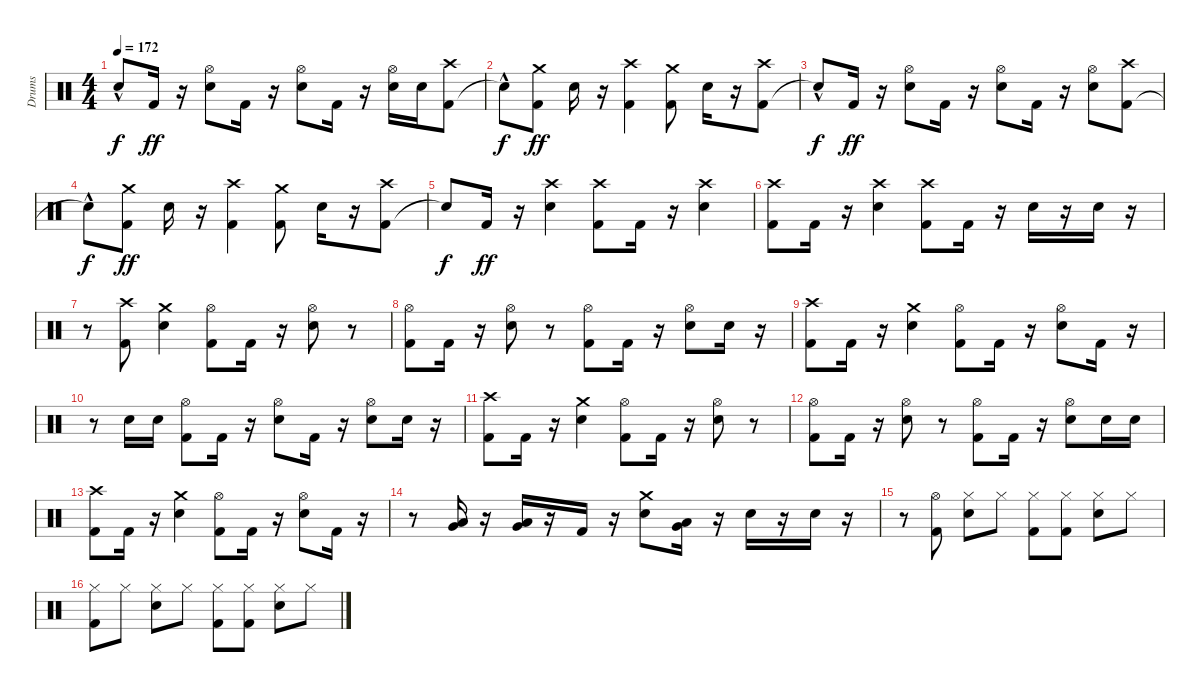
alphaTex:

\track ("Drums" "Drums") {instrument percussion}
\staff {score}
\articulation defaults
\ts (4 4)
\tempo 172
\clef neutral
\ks c "Snare (hit)"{hac t}.8{dy f} "Kick (hit) 2".16{dy ff}
r.16 ("Electric Snare (hit)" "Hi-Hat (open)").8 "Kick (hit) 2".16 r.16 ("Electric Snare (hit)" "Hi-Hat (open)").8 "Kick (hit) 2".16 r.16 ("Electric Snare (hit)" "Hi-Hat (open)").16 "Electric Snare (hit)".16 ("Kick (hit) 2" "Crash high (hit)").8 |
"Snare (hit)"{hac t}.8{dy f} ("Kick (hit) 2" "Crash medium (hit)").8{dy ff} "Electric Snare (hit)".16 r.16 ("Kick (hit) 2" "Crash high (hit)").4 ("Kick (hit) 2" "Crash medium (hit)").8 "Electric Snare (hit)".16 r.16 ("Kick (hit) 2" "Crash high (hit)").8 |
"Snare (hit)"{hac t}.8{dy f} "Kick (hit) 2".16{dy ff} r.16 ("Electric Snare (hit)" "Hi-Hat (open)").8 "Kick (hit) 2".16 r.16 ("Electric Snare (hit)" "Hi-Hat (open)").8 "Kick (hit) 2".16 r.16 ("Electric Snare (hit)" "Hi-Hat (open)").8 ("Kick (hit) 2" "Crash high (hit)").8 |
"Snare (hit)"{hac t}.8{dy f} ("Kick (hit) 2" "Crash medium (hit)").8{dy ff} "Electric Snare (hit)".16 r.16 ("Kick (hit) 2" "Crash high (hit)").4 ("Kick (hit) 2" "Crash medium (hit)").8 "Electric Snare (hit)".16 r.16 ("Kick (hit) 2" "Crash high (hit)").8 |
"Snare (hit)"{t}.8{dy f} "Kick (hit) 2".16{dy ff} r.16 ("Electric Snare (hit)" "Crash high (hit)").4 ("Kick (hit) 2" "Crash high (hit)").8 "Kick (hit) 2".16 r.16 ("Electric Snare (hit)" "Crash high (hit)").4 |
("Kick (hit) 2" "Crash high (hit)").8 "Kick (hit) 2".16 r.16 ("Electric Snare (hit)" "Crash high (hit)").4 ("Kick (hit) 2" "Crash high (hit)").8 "Kick (hit) 2".16 r.16 "Electric Snare (hit)".16 r.16 "Electric Snare (hit)".16 r.16 |
r.8 ("Kick (hit) 2" "Crash high (hit)").8 ("Electric Snare (hit)" "Crash medium (hit)").4 ("Kick (hit) 2" "Hi-Hat (open)").8 "Kick (hit) 2".16 r.16 ("Electric Snare (hit)" "Hi-Hat (open)").8 r.8 |
("Kick (hit) 2" "Hi-Hat (open)").8 "Kick (hit) 2".16 r.16 ("Electric Snare (hit)" "Hi-Hat (open)").8 r.8 ("Kick (hit) 2" "Hi-Hat (open)").8 "Kick (hit) 2".16 r.16 ("Electric Snare (hit)" "Hi-Hat (open)").8 "Electric Snare (hit)".16 r.16 |
("Kick (hit) 2" "Crash high (hit)").8 "Kick (hit) 2".16 r.16 ("Electric Snare (hit)" "Crash medium (hit)").4 ("Kick (hit) 2" "Hi-Hat (open)").8 "Kick (hit) 2".16 r.16 ("Electric Snare (hit)" "Hi-Hat (open)").8 "Kick (hit) 2".16 r.16 |
r.8 "Electric Snare (hit)".16 "Electric Snare (hit)".16 ("Kick (hit) 2" "Hi-Hat (open)").8 "Kick (hit) 2".16 r.16 ("Electric Snare (hit)" "Hi-Hat (open)").8 "Kick (hit) 2".16 r.16 ("Electric Snare (hit)" "Hi-Hat (open)").8 "Electric Snare (hit)".16 r.16 |
("Kick (hit) 2" "Crash high (hit)").8 "Kick (hit) 2".16 r.16 ("Electric Snare (hit)" "Crash medium (hit)").4 ("Kick (hit) 2" "Hi-Hat (open)").8 "Kick (hit) 2".16 r.16 ("Electric Snare (hit)" "Hi-Hat (open)").8 r.8 |
("Kick (hit) 2" "Hi-Hat (open)").8 "Kick (hit) 2".16 r.16 ("Electric Snare (hit)" "Hi-Hat (open)").8 r.8 ("Kick (hit) 2" "Hi-Hat (open)").8 "Kick (hit) 2".16 r.16 ("Electric Snare (hit)" "Hi-Hat (open)").8 "Electric Snare (hit)".16 "Electric Snare (hit)".16 |
("Kick (hit) 2" "Crash high (hit)").8 "Kick (hit) 2".16 r.16 ("Electric Snare (hit)" "Crash medium (hit)").4 ("Kick (hit) 2" "Hi-Hat (open)").8 "Kick (hit) 2".16 r.16 ("Electric Snare (hit)" "Hi-Hat (open)").8 "Kick (hit) 2".16 r.16 |
r.8 ("Low Tom (hit)" "Very Low Tom (hit)").16 r.16 ("Low Tom (hit)" "Very Low Tom (hit)").16 r.16 "Kick (hit) 2".16 r.16 ("Crash medium (hit)" "Electric Snare (hit)").8 ("Very Low Tom (hit)" "Low Floor Tom (hit)").16 r.16 "Electric Snare (hit)".16 r.16 "Electric Snare (hit)".16 r.16 |
r.8 ("Kick (hit) 2" "Hi-Hat (open)").8 ("Electric Snare (hit)" "Hi-Hat (closed)").8 "Hi-Hat (closed)".8 ("Kick (hit) 2" "Hi-Hat (closed)").8 ("Kick (hit) 2" "Hi-Hat (closed)").8 ("Electric Snare (hit)" "Hi-Hat (closed)").8 "Hi-Hat (closed)".8 |
("Kick (hit) 2" "Hi-Hat (closed)").8 "Hi-Hat (closed)".8 ("Electric Snare (hit)" "Hi-Hat (closed)").8 "Hi-Hat (closed)".8 ("Kick (hit) 2" "Hi-Hat (closed)").8 ("Kick (hit) 2" "Hi-Hat (closed)").8 ("Electric Snare (hit)" "Hi-Hat (closed)").8 "Hi-Hat (closed)".8
